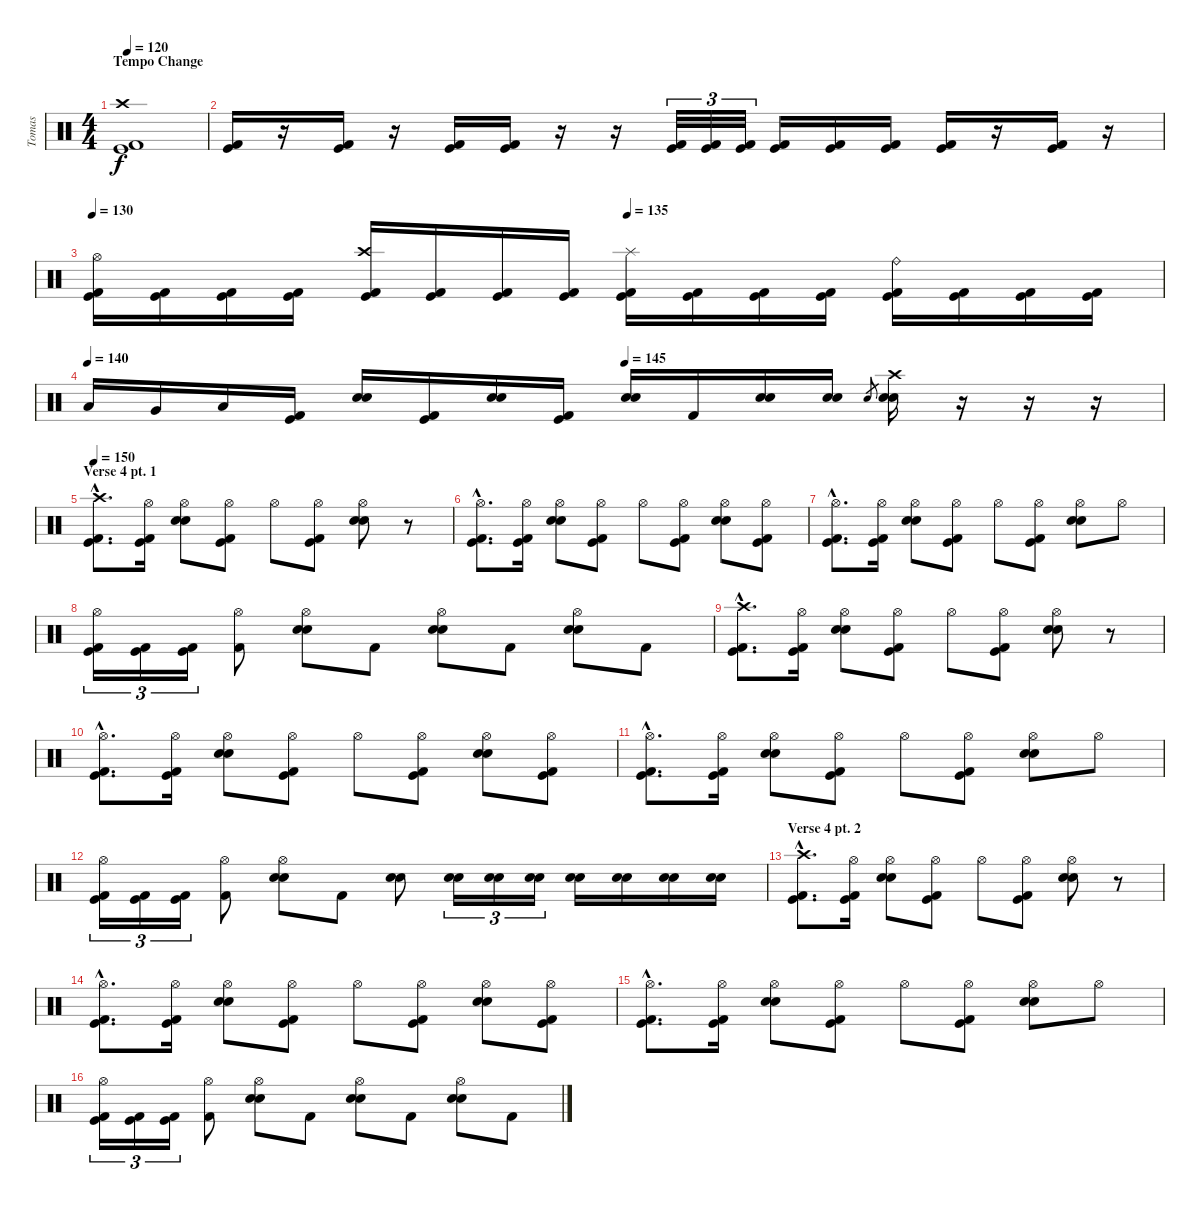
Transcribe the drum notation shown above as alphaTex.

\track ("Tomas" "Tomas") {instrument percussion}
\staff {score}
\articulation defaults
\ts (4 4)
\section ("" "Tempo Change")
\tempo 120
\clef neutral
\ks c
("Kick (hit)" "Crash high (hit)" "Kick (hit) 2").1{dy f} |
("Kick (hit)" "Kick (hit) 2").16 r.16 ("Kick (hit)" "Kick (hit) 2").16 r.16 ("Kick (hit)" "Kick (hit) 2").16 ("Kick (hit)" "Kick (hit) 2").16 r.16 r.16 ("Kick (hit)" "Kick (hit) 2").32{tu (3 2)} ("Kick (hit)" "Kick (hit) 2").32{tu (3 2)} ("Kick (hit)" "Kick (hit) 2").32{tu (3 2)} ("Kick (hit)" "Kick (hit) 2").16 ("Kick (hit)" "Kick (hit) 2").16 ("Kick (hit)" "Kick (hit) 2").16 ("Kick (hit)" "Kick (hit) 2").16 r.16 ("Kick (hit)" "Kick (hit) 2").16 r.16 |
\tempo 130
\tempo (135 0.5)
("Hi-Hat (open)" "Kick (hit)" "Kick (hit) 2").16 ("Kick (hit)" "Kick (hit) 2").16 ("Kick (hit)" "Kick (hit) 2").16 ("Kick (hit)" "Kick (hit) 2").16 ("Crash high (hit)" "Kick (hit)" "Kick (hit) 2").16 ("Kick (hit)" "Kick (hit) 2").16 ("Kick (hit)" "Kick (hit) 2").16 ("Kick (hit)" "Kick (hit) 2").16 ("Splash (hit)" "Kick (hit)" "Kick (hit) 2").16 ("Kick (hit)" "Kick (hit) 2").16 ("Kick (hit)" "Kick (hit) 2").16 ("Kick (hit)" "Kick (hit) 2").16 ("Ride (bell)" "Kick (hit)" "Kick (hit) 2").16 ("Kick (hit)" "Kick (hit) 2").16 ("Kick (hit)" "Kick (hit) 2").16 ("Kick (hit)" "Kick (hit) 2").16 |
\tempo 140
\tempo (145 0.5)
"Low Tom (hit)".16 "Very Low Tom (hit)".16 "Low Floor Tom (hit)".16 ("Kick (hit)" "Kick (hit) 2").16 ("Electric Snare (hit)" "Electric Snare (hit)").16 ("Kick (hit)" "Kick (hit) 2").16 ("Electric Snare (hit)" "Electric Snare (hit)").16 ("Kick (hit)" "Kick (hit) 2").16 ("Electric Snare (hit)" "Electric Snare (hit)").16 "Kick (hit) 2".16 ("Electric Snare (hit)" "Electric Snare (hit)").16 ("Electric Snare (hit)" "Electric Snare (hit)").16 "Electric Snare (hit)".8{gr} ("Crash high (hit)" "Electric Snare (hit)" "Electric Snare (hit)").16 r.16 r.16 r.16 |
\section ("" "Verse 4 pt. 1")
\tempo 150
("Crash high (hit)"{hac} "Kick (hit)"{hac} "Kick (hit) 2"{hac}).8{d} ("Hi-Hat (open)" "Kick (hit)" "Kick (hit) 2").16 ("Hi-Hat (open)" "Electric Snare (hit)" "Electric Snare (hit)").8 ("Hi-Hat (open)" "Kick (hit)" "Kick (hit) 2").8 "Hi-Hat (open)".8 ("Hi-Hat (open)" "Kick (hit)" "Kick (hit) 2").8 ("Hi-Hat (open)" "Electric Snare (hit)" "Electric Snare (hit)").8 r.8 |
("Hi-Hat (open)"{hac} "Kick (hit)"{hac} "Kick (hit) 2"{hac}).8{d} ("Hi-Hat (open)" "Kick (hit)" "Kick (hit) 2").16 ("Hi-Hat (open)" "Electric Snare (hit)" "Electric Snare (hit)").8 ("Hi-Hat (open)" "Kick (hit)" "Kick (hit) 2").8 "Hi-Hat (open)".8 ("Hi-Hat (open)" "Kick (hit)" "Kick (hit) 2").8 ("Hi-Hat (open)" "Electric Snare (hit)" "Electric Snare (hit)").8 ("Hi-Hat (open)" "Kick (hit)" "Kick (hit) 2").8 |
("Hi-Hat (open)"{hac} "Kick (hit)"{hac} "Kick (hit) 2"{hac}).8{d} ("Hi-Hat (open)" "Kick (hit)" "Kick (hit) 2").16 ("Hi-Hat (open)" "Electric Snare (hit)" "Electric Snare (hit)").8 ("Hi-Hat (open)" "Kick (hit)" "Kick (hit) 2").8 "Hi-Hat (open)".8 ("Hi-Hat (open)" "Kick (hit)" "Kick (hit) 2").8 ("Hi-Hat (open)" "Electric Snare (hit)" "Electric Snare (hit)").8 "Hi-Hat (open)".8 |
("Hi-Hat (open)" "Kick (hit)" "Kick (hit) 2").16{tu (3 2)} ("Kick (hit)" "Kick (hit) 2").16{tu (3 2)} ("Kick (hit)" "Kick (hit) 2").16{tu (3 2)} ("Hi-Hat (open)" "Kick (hit) 2").8 ("Hi-Hat (open)" "Electric Snare (hit)" "Electric Snare (hit)").8 "Kick (hit) 2".8 ("Hi-Hat (open)" "Electric Snare (hit)" "Electric Snare (hit)").8 "Kick (hit) 2".8 ("Hi-Hat (open)" "Electric Snare (hit)" "Electric Snare (hit)").8 "Kick (hit) 2".8 |
("Crash high (hit)"{hac} "Kick (hit)"{hac} "Kick (hit) 2"{hac}).8{d} ("Hi-Hat (open)" "Kick (hit)" "Kick (hit) 2").16 ("Hi-Hat (open)" "Electric Snare (hit)" "Electric Snare (hit)").8 ("Hi-Hat (open)" "Kick (hit)" "Kick (hit) 2").8 "Hi-Hat (open)".8 ("Hi-Hat (open)" "Kick (hit)" "Kick (hit) 2").8 ("Hi-Hat (open)" "Electric Snare (hit)" "Electric Snare (hit)").8 r.8 |
("Hi-Hat (open)"{hac} "Kick (hit)"{hac} "Kick (hit) 2"{hac}).8{d} ("Hi-Hat (open)" "Kick (hit)" "Kick (hit) 2").16 ("Hi-Hat (open)" "Electric Snare (hit)" "Electric Snare (hit)").8 ("Hi-Hat (open)" "Kick (hit)" "Kick (hit) 2").8 "Hi-Hat (open)".8 ("Hi-Hat (open)" "Kick (hit)" "Kick (hit) 2").8 ("Hi-Hat (open)" "Electric Snare (hit)" "Electric Snare (hit)").8 ("Hi-Hat (open)" "Kick (hit)" "Kick (hit) 2").8 |
("Hi-Hat (open)"{hac} "Kick (hit)"{hac} "Kick (hit) 2"{hac}).8{d} ("Hi-Hat (open)" "Kick (hit)" "Kick (hit) 2").16 ("Hi-Hat (open)" "Electric Snare (hit)" "Electric Snare (hit)").8 ("Hi-Hat (open)" "Kick (hit)" "Kick (hit) 2").8 "Hi-Hat (open)".8 ("Hi-Hat (open)" "Kick (hit)" "Kick (hit) 2").8 ("Hi-Hat (open)" "Electric Snare (hit)" "Electric Snare (hit)").8 "Hi-Hat (open)".8 |
("Hi-Hat (open)" "Kick (hit)" "Kick (hit) 2").16{tu (3 2)} ("Kick (hit)" "Kick (hit) 2").16{tu (3 2)} ("Kick (hit)" "Kick (hit) 2").16{tu (3 2)} ("Hi-Hat (open)" "Kick (hit) 2").8 ("Hi-Hat (open)" "Electric Snare (hit)" "Electric Snare (hit)").8 "Kick (hit) 2".8 ("Electric Snare (hit)" "Electric Snare (hit)").8 ("Electric Snare (hit)" "Electric Snare (hit)").16{tu (3 2)} ("Electric Snare (hit)" "Electric Snare (hit)").16{tu (3 2)} ("Electric Snare (hit)" "Electric Snare (hit)").16{tu (3 2)} ("Electric Snare (hit)" "Electric Snare (hit)").16 ("Electric Snare (hit)" "Electric Snare (hit)").16 ("Electric Snare (hit)" "Electric Snare (hit)").16 ("Electric Snare (hit)" "Electric Snare (hit)").16 |
\section ("" "Verse 4 pt. 2")
("Crash high (hit)"{hac} "Kick (hit)"{hac} "Kick (hit) 2"{hac}).8{d} ("Hi-Hat (open)" "Kick (hit)" "Kick (hit) 2").16 ("Hi-Hat (open)" "Electric Snare (hit)" "Electric Snare (hit)").8 ("Hi-Hat (open)" "Kick (hit)" "Kick (hit) 2").8 "Hi-Hat (open)".8 ("Hi-Hat (open)" "Kick (hit)" "Kick (hit) 2").8 ("Hi-Hat (open)" "Electric Snare (hit)" "Electric Snare (hit)").8 r.8 |
("Hi-Hat (open)"{hac} "Kick (hit)"{hac} "Kick (hit) 2"{hac}).8{d} ("Hi-Hat (open)" "Kick (hit)" "Kick (hit) 2").16 ("Hi-Hat (open)" "Electric Snare (hit)" "Electric Snare (hit)").8 ("Hi-Hat (open)" "Kick (hit)" "Kick (hit) 2").8 "Hi-Hat (open)".8 ("Hi-Hat (open)" "Kick (hit)" "Kick (hit) 2").8 ("Hi-Hat (open)" "Electric Snare (hit)" "Electric Snare (hit)").8 ("Hi-Hat (open)" "Kick (hit)" "Kick (hit) 2").8 |
("Hi-Hat (open)"{hac} "Kick (hit)"{hac} "Kick (hit) 2"{hac}).8{d} ("Hi-Hat (open)" "Kick (hit)" "Kick (hit) 2").16 ("Hi-Hat (open)" "Electric Snare (hit)" "Electric Snare (hit)").8 ("Hi-Hat (open)" "Kick (hit)" "Kick (hit) 2").8 "Hi-Hat (open)".8 ("Hi-Hat (open)" "Kick (hit)" "Kick (hit) 2").8 ("Hi-Hat (open)" "Electric Snare (hit)" "Electric Snare (hit)").8 "Hi-Hat (open)".8 |
("Hi-Hat (open)" "Kick (hit)" "Kick (hit) 2").16{tu (3 2)} ("Kick (hit)" "Kick (hit) 2").16{tu (3 2)} ("Kick (hit)" "Kick (hit) 2").16{tu (3 2)} ("Hi-Hat (open)" "Kick (hit) 2").8 ("Hi-Hat (open)" "Electric Snare (hit)" "Electric Snare (hit)").8 "Kick (hit) 2".8 ("Hi-Hat (open)" "Electric Snare (hit)" "Electric Snare (hit)").8 "Kick (hit) 2".8 ("Hi-Hat (open)" "Electric Snare (hit)" "Electric Snare (hit)").8 "Kick (hit) 2".8
